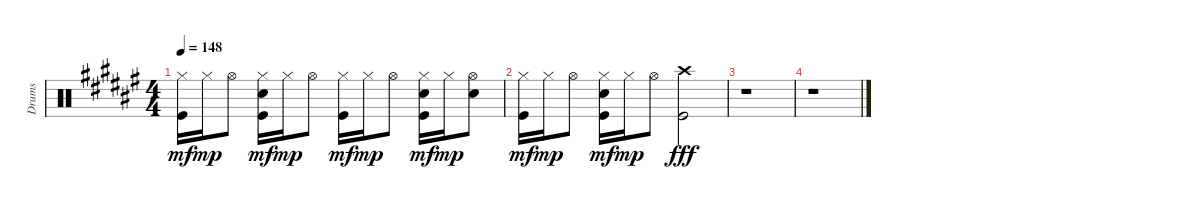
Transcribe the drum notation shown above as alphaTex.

\track ("Drums" "Drums") {instrument percussion}
\staff {score}
\articulation defaults
\ts (4 4)
\tempo 148
\clef neutral
\ks d#minor
("Kick (hit)" "Hi-Hat (closed)").16{dy mf} "Hi-Hat (closed)".16{dy mp} "Hi-Hat (open)".8 ("Electric Snare (hit)" "Kick (hit)" "Hi-Hat (closed)").16{dy mf} "Hi-Hat (closed)".16{dy mp} "Hi-Hat (open)".8 ("Kick (hit)" "Hi-Hat (closed)").16{dy mf} "Hi-Hat (closed)".16{dy mp} "Hi-Hat (open)".8 ("Electric Snare (hit)" "Kick (hit)" "Hi-Hat (closed)").16{dy mf} "Hi-Hat (closed)".16{dy mp} ("Snare (hit) 2" "Hi-Hat (open)").8 |
("Kick (hit)" "Hi-Hat (closed)").16{dy mf} "Hi-Hat (closed)".16{dy mp} "Hi-Hat (open)".8 ("Electric Snare (hit)" "Kick (hit)" "Hi-Hat (closed)").16{dy mf} "Hi-Hat (closed)".16{dy mp} "Hi-Hat (open)".8 ("Crash high (hit)" "Kick (hit)").2{dy fff} |
r.1 |
r.1
